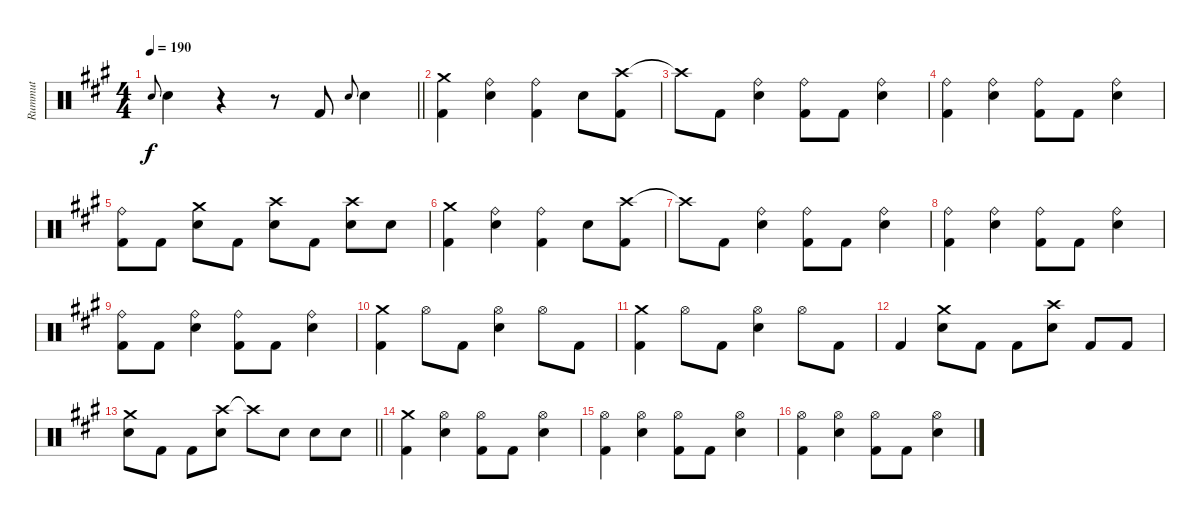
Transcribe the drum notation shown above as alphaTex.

\track ("Rummut" "Rummut") {instrument percussion}
\staff {score}
\articulation defaults
\ts (4 4)
\tempo 190
\clef neutral
\barLineRight lightlight
\ks a "Snare (hit) 2".8{gr onbeat dy f} "Snare (hit) 2".4
r.4 r.8 "Kick (hit) 2".8 "Snare (hit) 2".8{gr onbeat} "Snare (hit) 2".4 |
("Crash medium (hit)" "Kick (hit) 2").4 ("Ride (bell)" "Snare (hit) 2").4 ("Ride (bell)" "Kick (hit) 2").4 "Snare (hit) 2".8 ("Crash high (hit)" "Kick (hit) 2").8 |
"Crash high (hit)"{t}.8 "Kick (hit) 2".8 ("Ride (bell)" "Snare (hit) 2").4 ("Ride (bell)" "Kick (hit) 2").8 "Kick (hit) 2".8 ("Ride (bell)" "Snare (hit) 2").4 |
("Ride (bell)" "Kick (hit) 2").4 ("Ride (bell)" "Snare (hit) 2").4 ("Ride (bell)" "Kick (hit) 2").8 "Kick (hit) 2".8 ("Ride (bell)" "Snare (hit) 2").4 |
("Ride (bell)" "Kick (hit) 2").8 "Kick (hit) 2".8 ("Crash medium (hit)" "Snare (hit) 2").8 "Kick (hit) 2".8 ("Crash high (hit)" "Snare (hit) 2").8 "Kick (hit) 2".8 ("Crash high (hit)" "Snare (hit) 2").8 "Snare (hit) 2".8 |
("Crash medium (hit)" "Kick (hit) 2").4 ("Ride (bell)" "Snare (hit) 2").4 ("Ride (bell)" "Kick (hit) 2").4 "Snare (hit) 2".8 ("Crash high (hit)" "Kick (hit) 2").8 |
"Crash high (hit)"{t}.8 "Kick (hit) 2".8 ("Ride (bell)" "Snare (hit) 2").4 ("Ride (bell)" "Kick (hit) 2").8 "Kick (hit) 2".8 ("Ride (bell)" "Snare (hit) 2").4 |
("Ride (bell)" "Kick (hit) 2").4 ("Ride (bell)" "Snare (hit) 2").4 ("Ride (bell)" "Kick (hit) 2").8 "Kick (hit) 2".8 ("Ride (bell)" "Snare (hit) 2").4 |
("Ride (bell)" "Kick (hit) 2").8 "Kick (hit) 2".8 ("Ride (bell)" "Snare (hit) 2").4 ("Ride (bell)" "Kick (hit) 2").8 "Kick (hit) 2".8 ("Ride (bell)" "Snare (hit) 2").4 |
("Crash medium (hit)" "Kick (hit) 2").4 "Hi-Hat (open)".8 "Kick (hit) 2".8 ("Hi-Hat (open)" "Snare (hit) 2").4 "Hi-Hat (open)".8 "Kick (hit) 2".8 |
("Crash medium (hit)" "Kick (hit) 2").4 "Hi-Hat (open)".8 "Kick (hit) 2".8 ("Hi-Hat (open)" "Snare (hit) 2").4 "Hi-Hat (open)".8 "Kick (hit) 2".8 |
"Kick (hit) 2".4 ("Crash medium (hit)" "Snare (hit) 2").8 "Kick (hit) 2".8 "Kick (hit) 2".8 ("Crash high (hit)" "Snare (hit) 2").8 "Kick (hit) 2".8 "Kick (hit) 2".8 |
\barLineRight lightlight
("Crash medium (hit)" "Snare (hit) 2").8 "Kick (hit) 2".8 "Kick (hit) 2".8 ("Crash high (hit)" "Snare (hit) 2").8 "Crash high (hit)"{t}.8 "Snare (hit) 2".8 "Snare (hit) 2".8 "Snare (hit) 2".8 |
("Crash medium (hit)" "Kick (hit) 2").4 ("Hi-Hat (open)" "Snare (hit) 2").4 ("Hi-Hat (open)" "Kick (hit) 2").8 "Kick (hit) 2".8 ("Hi-Hat (open)" "Snare (hit) 2").4 |
("Hi-Hat (open)" "Kick (hit) 2").4 ("Hi-Hat (open)" "Snare (hit) 2").4 ("Hi-Hat (open)" "Kick (hit) 2").8 "Kick (hit) 2".8 ("Hi-Hat (open)" "Snare (hit) 2").4 |
("Hi-Hat (open)" "Kick (hit) 2").4 ("Hi-Hat (open)" "Snare (hit) 2").4 ("Hi-Hat (open)" "Kick (hit) 2").8 "Kick (hit) 2".8 ("Hi-Hat (open)" "Snare (hit) 2").4
